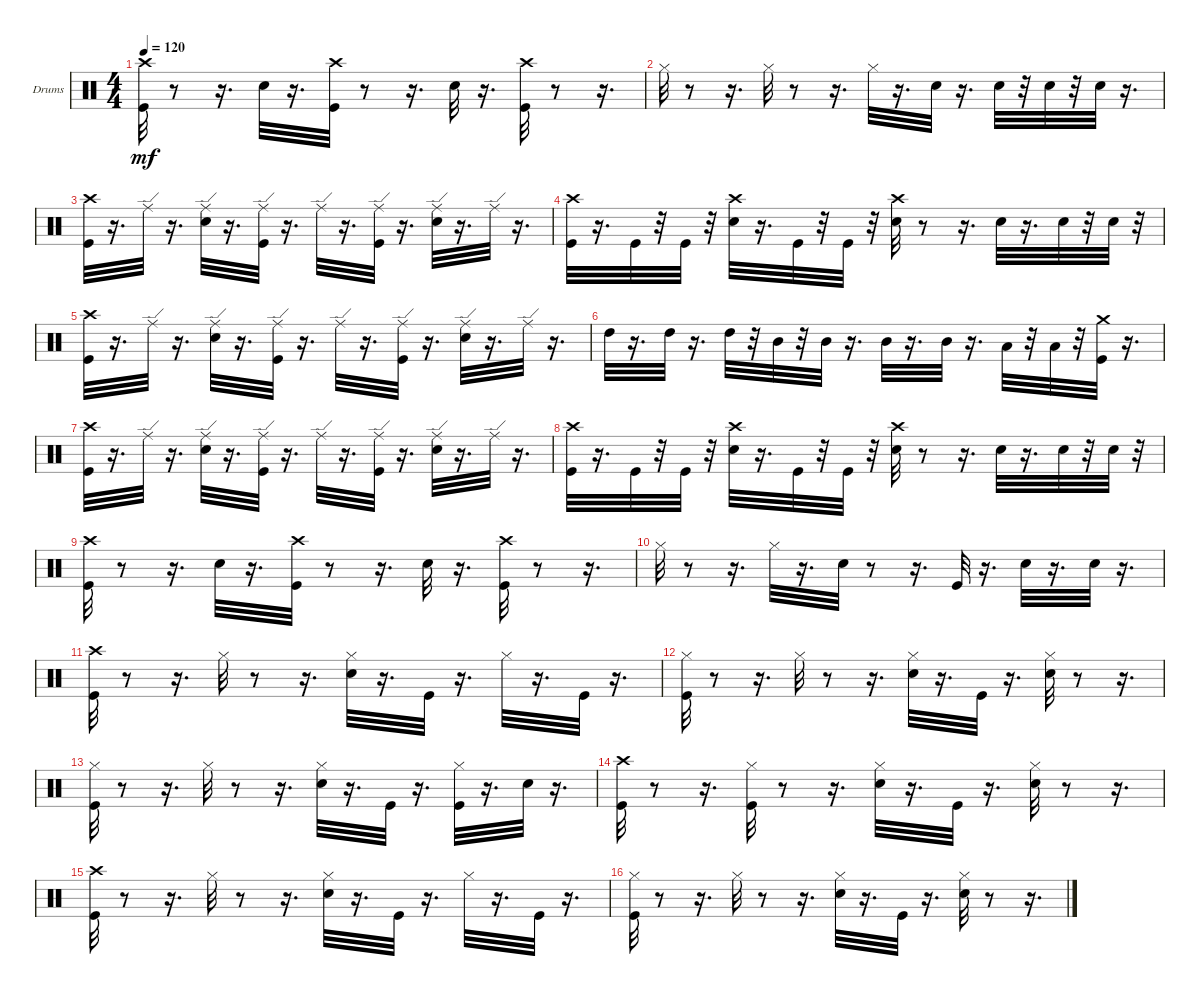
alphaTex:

\bracketExtendMode groupsimilarinstruments
\firstSystemTrackNameOrientation horizontal
\otherSystemsTrackNameOrientation horizontal
\track ("" "Drums") {instrument percussion}
\staff {score}
\articulation defaults
\ts (4 4)
\tempo 120
\clef neutral
\ks c
("Crash high (hit)" "Kick (hit)").32{dy mf} r.8 r.16{d} "Snare (hit) 2".32 r.16{d} ("Crash high (hit)" "Kick (hit)").32 r.8 r.16{d} "Snare (hit) 2".32 r.16{d} ("Crash high (hit)" "Kick (hit)").32 r.8 r.16{d} |
"Hi-Hat (closed)".32 r.8 r.16{d} "Hi-Hat (closed)".32 r.8 r.16{d} "Hi-Hat (closed)".32 r.16{d} "Snare (hit) 2".32 r.16{d} "Snare (hit) 2".32 r.32 "Snare (hit) 2".32 r.32 "Snare (hit) 2".32 r.16{d} |
("Crash high (hit)" "Kick (hit)").32 r.16{d} "Ride (edge)".32 r.16{d} ("Ride (edge)" "Snare (hit) 2").32 r.16{d} ("Kick (hit)" "Ride (edge)").32 r.16{d} "Ride (edge)".32 r.16{d} ("Kick (hit)" "Ride (edge)").32 r.16{d} ("Snare (hit) 2" "Ride (edge)").32 r.16{d} "Ride (edge)".32 r.16{d} |
("Crash high (hit)" "Kick (hit)").32 r.16{d} "Kick (hit)".32 r.32 "Kick (hit)".32 r.32 ("Crash high (hit)" "Snare (hit) 2").32 r.16{d} "Kick (hit)".32 r.32 "Kick (hit)".32 r.32 ("Crash high (hit)" "Snare (hit) 2").32 r.8 r.16{d} "Snare (hit) 2".32 r.16{d} "Snare (hit) 2".32 r.32 "Snare (hit) 2".32 r.32 |
("Crash high (hit)" "Kick (hit)").32 r.16{d} "Ride (edge)".32 r.16{d} ("Ride (edge)" "Snare (hit) 2").32 r.16{d} ("Kick (hit)" "Ride (edge)").32 r.16{d} "Ride (edge)".32 r.16{d} ("Kick (hit)" "Ride (edge)").32 r.16{d} ("Snare (hit) 2" "Ride (edge)").32 r.16{d} "Ride (edge)".32 r.16{d} |
"High Tom (hit)".32 r.16{d} "High Tom (hit)".32 r.16{d} "High Tom (hit)".32 r.32 "Mid Tom (hit)".32 r.32 "Mid Tom (hit)".32 r.16{d} "Mid Tom (hit)".32 r.16{d} "Mid Tom (hit)".32 r.16{d} "Low Tom (hit)".32 r.32 "Low Tom (hit)".32 r.32 ("Kick (hit)" "Crash medium (hit)").32 r.16{d} |
("Crash high (hit)" "Kick (hit)").32 r.16{d} "Ride (edge)".32 r.16{d} ("Ride (edge)" "Snare (hit) 2").32 r.16{d} ("Kick (hit)" "Ride (edge)").32 r.16{d} "Ride (edge)".32 r.16{d} ("Kick (hit)" "Ride (edge)").32 r.16{d} ("Snare (hit) 2" "Ride (edge)").32 r.16{d} "Ride (edge)".32 r.16{d} |
("Crash high (hit)" "Kick (hit)").32 r.16{d} "Kick (hit)".32 r.32 "Kick (hit)".32 r.32 ("Crash high (hit)" "Snare (hit) 2").32 r.16{d} "Kick (hit)".32 r.32 "Kick (hit)".32 r.32 ("Crash high (hit)" "Snare (hit) 2").32 r.8 r.16{d} "Snare (hit) 2".32 r.16{d} "Snare (hit) 2".32 r.32 "Snare (hit) 2".32 r.32 |
("Crash high (hit)" "Kick (hit)").32 r.8 r.16{d} "Snare (hit) 2".32 r.16{d} ("Crash high (hit)" "Kick (hit)").32 r.8 r.16{d} "Snare (hit) 2".32 r.16{d} ("Crash high (hit)" "Kick (hit)").32 r.8 r.16{d} |
"Hi-Hat (closed)".32 r.8 r.16{d} "Hi-Hat (closed)".32 r.16{d} "Snare (hit) 2".32 r.8 r.16{d} "Kick (hit)".32 r.16{d} "Snare (hit) 2".32 r.16{d} "Snare (hit) 2".32 r.16{d} |
("Crash high (hit)" "Kick (hit)").32 r.8 r.16{d} "Hi-Hat (closed)".32 r.8 r.16{d} ("Hi-Hat (closed)" "Snare (hit) 2").32 r.16{d} "Kick (hit)".32 r.16{d} "Hi-Hat (closed)".32 r.16{d} "Kick (hit)".32 r.16{d} |
("Hi-Hat (closed)" "Kick (hit)").32 r.8 r.16{d} "Hi-Hat (closed)".32 r.8 r.16{d} ("Hi-Hat (closed)" "Snare (hit) 2").32 r.16{d} "Kick (hit)".32 r.16{d} ("Hi-Hat (closed)" "Snare (hit) 2").32 r.8 r.16{d} |
("Hi-Hat (closed)" "Kick (hit)").32 r.8 r.16{d} "Hi-Hat (closed)".32 r.8 r.16{d} ("Hi-Hat (closed)" "Snare (hit) 2").32 r.16{d} "Kick (hit)".32 r.16{d} ("Hi-Hat (closed)" "Kick (hit)").32 r.16{d} "Snare (hit) 2".32 r.16{d} |
("Crash high (hit)" "Kick (hit)").32 r.8 r.16{d} ("Hi-Hat (closed)" "Kick (hit)").32 r.8 r.16{d} ("Hi-Hat (closed)" "Snare (hit) 2").32 r.16{d} "Kick (hit)".32 r.16{d} ("Hi-Hat (closed)" "Snare (hit) 2").32 r.8 r.16{d} |
("Crash high (hit)" "Kick (hit)").32 r.8 r.16{d} "Hi-Hat (closed)".32 r.8 r.16{d} ("Hi-Hat (closed)" "Snare (hit) 2").32 r.16{d} "Kick (hit)".32 r.16{d} "Hi-Hat (closed)".32 r.16{d} "Kick (hit)".32 r.16{d} |
("Hi-Hat (closed)" "Kick (hit)").32 r.8 r.16{d} "Hi-Hat (closed)".32 r.8 r.16{d} ("Hi-Hat (closed)" "Snare (hit) 2").32 r.16{d} "Kick (hit)".32 r.16{d} ("Hi-Hat (closed)" "Snare (hit) 2").32 r.8 r.16{d}
